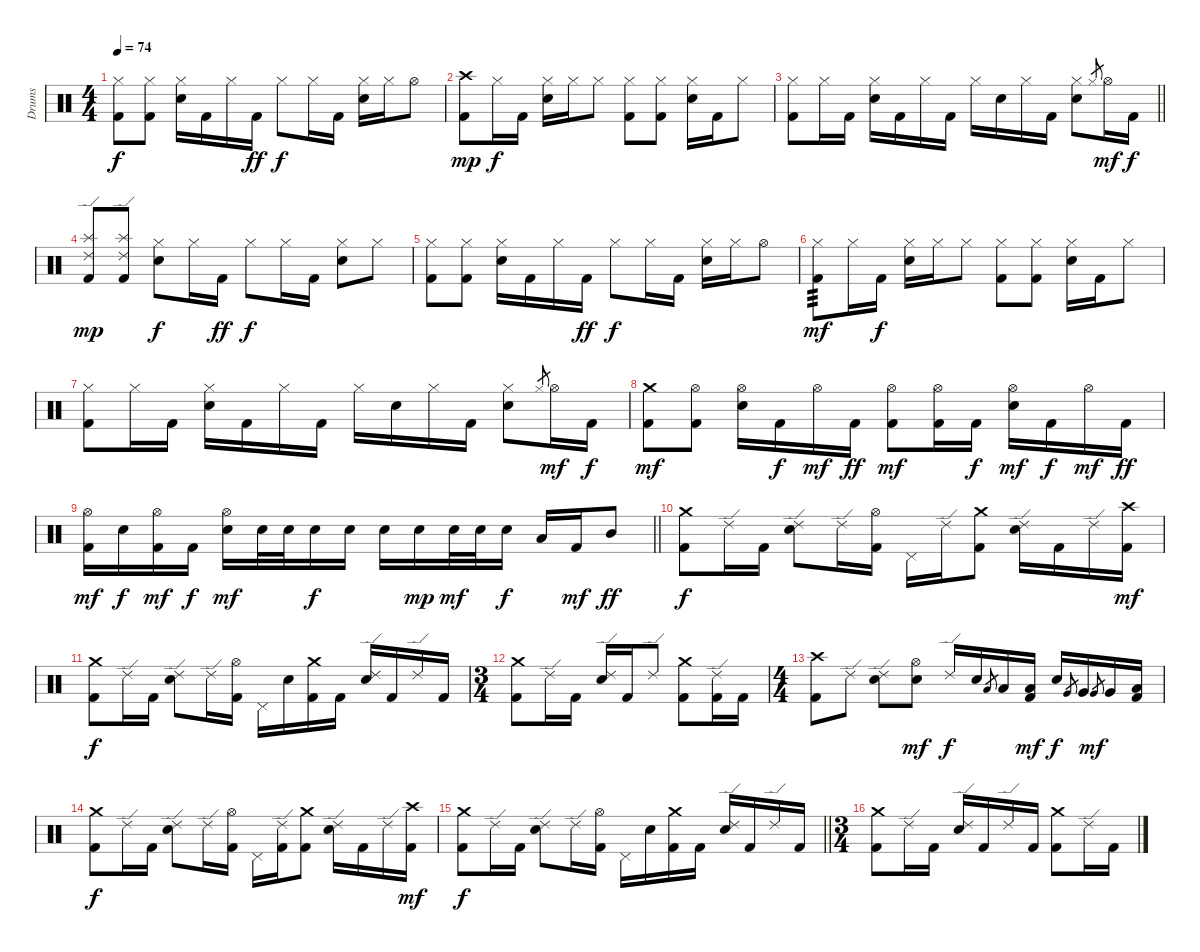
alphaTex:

\track ("Drums" "Drums") {instrument percussion}
\staff {score}
\articulation defaults
\ts (4 4)
\tempo 74
\clef neutral
\ks c
("Hi-Hat (closed)" "Kick (hit) 2").8{dy f} ("Hi-Hat (closed)" "Kick (hit) 2").8 ("Hi-Hat (closed)" "Snare (hit) 2").16 "Kick (hit) 2".16 "Hi-Hat (closed)".16 "Kick (hit) 2".16{dy ff} "Hi-Hat (closed)".8{dy f} "Hi-Hat (closed)".16 "Kick (hit) 2".16 ("Hi-Hat (closed)" "Snare (hit) 2").16 "Hi-Hat (closed)".16 "Hi-Hat (open)".8 |
("Crash high (hit)" "Kick (hit) 2").8{dy mp} "Hi-Hat (closed)".16{dy f} "Kick (hit) 2".16 ("Hi-Hat (closed)" "Snare (hit) 2").16 "Hi-Hat (closed)".16 "Hi-Hat (closed)".8 ("Hi-Hat (closed)" "Kick (hit) 2").8 ("Hi-Hat (closed)" "Kick (hit) 2").8 ("Hi-Hat (closed)" "Snare (hit) 2").16 "Kick (hit) 2".16 "Hi-Hat (closed)".8 |
\barLineRight lightlight
("Hi-Hat (closed)" "Kick (hit) 2").8 "Hi-Hat (closed)".16 "Kick (hit) 2".16 ("Hi-Hat (closed)" "Snare (hit) 2").16 "Kick (hit) 2".16 "Hi-Hat (closed)".16 "Kick (hit) 2".16 "Hi-Hat (closed)".16 "Snare (hit) 2".16 "Hi-Hat (closed)".16 "Kick (hit) 2".16 ("Hi-Hat (closed)" "Snare (hit) 2").8 "Hi-Hat (closed)".8{gr} "Hi-Hat (open)".16{dy mf} "Kick (hit) 2".16{dy f} |
("Splash (hit)" "Ride (edge) 2" "Kick (hit) 2").8{dy mp} ("Splash (hit)" "Ride (edge) 2" "Kick (hit) 2").8 ("Hi-Hat (closed)" "Snare (hit) 2").8{dy f} "Hi-Hat (closed)".16 "Kick (hit) 2".16{dy ff} "Hi-Hat (closed)".8{dy f} "Hi-Hat (closed)".16 "Kick (hit) 2".16 ("Hi-Hat (closed)" "Snare (hit) 2").8 "Hi-Hat (closed)".8 |
("Hi-Hat (closed)" "Kick (hit) 2").8 ("Hi-Hat (closed)" "Kick (hit) 2").8 ("Hi-Hat (closed)" "Snare (hit) 2").16 "Kick (hit) 2".16 "Hi-Hat (closed)".16 "Kick (hit) 2".16{dy ff} "Hi-Hat (closed)".8{dy f} "Hi-Hat (closed)".16 "Kick (hit) 2".16 ("Hi-Hat (closed)" "Snare (hit) 2").16 "Hi-Hat (closed)".16 "Hi-Hat (open)".8 |
("Hi-Hat (closed)" "Kick (hit) 2").8{tp 3 dy mf} "Hi-Hat (closed)".16 "Kick (hit) 2".16{dy f} ("Hi-Hat (closed)" "Snare (hit) 2").16 "Hi-Hat (closed)".16 "Hi-Hat (closed)".8 ("Hi-Hat (closed)" "Kick (hit) 2").8 ("Hi-Hat (closed)" "Kick (hit) 2").8 ("Hi-Hat (closed)" "Snare (hit) 2").16 "Kick (hit) 2".16 "Hi-Hat (closed)".8 |
("Hi-Hat (closed)" "Kick (hit) 2").8 "Hi-Hat (closed)".16 "Kick (hit) 2".16 ("Hi-Hat (closed)" "Snare (hit) 2").16 "Kick (hit) 2".16 "Hi-Hat (closed)".16 "Kick (hit) 2".16 "Hi-Hat (closed)".16 "Snare (hit) 2".16 "Hi-Hat (closed)".16 "Kick (hit) 2".16 ("Hi-Hat (closed)" "Snare (hit) 2").8 "Hi-Hat (closed)".8{gr} "Hi-Hat (open)".16{dy mf} "Kick (hit) 2".16{dy f} |
("Crash medium (hit)" "Kick (hit) 2").8{dy mf} ("Hi-Hat (open)" "Kick (hit) 2").8 ("Hi-Hat (open)" "Snare (hit) 2").16 "Kick (hit) 2".16{dy f} "Hi-Hat (open)".16{dy mf} "Kick (hit) 2".16{dy ff} ("Hi-Hat (open)" "Kick (hit) 2").8{dy mf} ("Hi-Hat (open)" "Kick (hit) 2").16 "Kick (hit) 2".16{dy f} ("Hi-Hat (open)" "Snare (hit) 2").16{dy mf} "Kick (hit) 2".16{dy f} "Hi-Hat (open)".16{dy mf} "Kick (hit) 2".16{dy ff} |
\barLineRight lightlight
("Hi-Hat (open)" "Kick (hit) 2").16{dy mf} "Snare (hit) 2".16{dy f} ("Hi-Hat (open)" "Kick (hit) 2").16{dy mf} "Kick (hit) 2".16{dy f} ("Hi-Hat (open)" "Snare (hit) 2").16{dy mf} "Snare (hit) 2".32 "Snare (hit) 2".32 "Snare (hit) 2".16{dy f} "Snare (hit) 2".16 "Snare (hit) 2".16 "Snare (hit) 2".16{dy mp} "Snare (hit) 2".32{dy mf} "Snare (hit) 2".32 "Snare (hit) 2".16{dy f} "Low Tom (hit)".16 "Kick (hit) 2".16{dy mf} "Mid Tom (hit)".8{dy ff} |
("Crash medium (hit)" "Kick (hit) 2").8{dy f} "Ride (edge) 2".16 "Kick (hit) 2".16 ("Ride (edge) 2" "Snare (hit) 2").8 "Ride (edge) 2".16 ("Hi-Hat (open)" "Kick (hit) 2").16 "Pedal Hi-Hat (hit)".16 "Ride (edge) 2".16 ("Crash medium (hit)" "Kick (hit) 2").8 ("Ride (edge) 2" "Snare (hit) 2").16 "Kick (hit) 2".16 "Ride (edge) 2".16 ("Crash high (hit)" "Kick (hit) 2").16{dy mf} |
("Crash medium (hit)" "Kick (hit) 2").8{dy f} "Ride (edge) 2".16 "Kick (hit) 2".16 ("Ride (edge) 2" "Snare (hit) 2").8 "Ride (edge) 2".16 ("Hi-Hat (open)" "Kick (hit) 2").16 "Pedal Hi-Hat (hit)".16 "Snare (hit) 2".16 ("Crash medium (hit)" "Kick (hit) 2").16 "Kick (hit) 2".16 ("Ride (edge) 2" "Snare (hit) 2").16 "Kick (hit) 2".16 "Ride (edge) 2".16 "Kick (hit) 2".16 |
\ts (3 4)
("Crash medium (hit)" "Kick (hit) 2").8 "Ride (edge) 2".16 "Kick (hit) 2".16 ("Ride (edge) 2" "Snare (hit) 2").16 "Kick (hit) 2".16 "Ride (edge) 2".8 ("Crash medium (hit)" "Kick (hit) 2").8 ("Ride (edge) 2" "Kick (hit) 2").16 "Kick (hit) 2".16 |
\ts (4 4)
("Crash high (hit)" "Kick (hit) 2").8 "Ride (edge) 2".8 ("Ride (edge) 2" "Snare (hit) 2").8 ("Hi-Hat (open)" "Snare (hit) 2").8{dy mf} "Ride (edge) 2".16{dy f} "Snare (hit) 2".16 "Low Tom (hit)".8{gr} "Low Tom (hit)".16 ("Low Tom (hit)" "Kick (hit) 2").16{dy mf} "Snare (hit) 2".16{dy f} "Very Low Tom (hit)".8{gr} "Very Low Tom (hit)".16 "Very Low Tom (hit)".8{gr dy mf} "Very Low Tom (hit)".16 ("Low Floor Tom (hit)" "Kick (hit) 2").16 |
("Crash medium (hit)" "Kick (hit) 2").8{dy f} "Ride (edge) 2".16 "Kick (hit) 2".16 ("Ride (edge) 2" "Snare (hit) 2").8 "Ride (edge) 2".16 ("Hi-Hat (open)" "Kick (hit) 2").16 "Pedal Hi-Hat (hit)".16 ("Ride (edge) 2" "Kick (hit) 2").16 ("Crash medium (hit)" "Kick (hit) 2").8 ("Ride (edge) 2" "Snare (hit) 2").16 "Kick (hit) 2".16 "Ride (edge) 2".16 ("Crash high (hit)" "Kick (hit) 2").16{dy mf} |
\barLineRight lightlight
("Crash medium (hit)" "Kick (hit) 2").8{dy f} "Ride (edge) 2".16 "Kick (hit) 2".16 ("Ride (edge) 2" "Snare (hit) 2").8 "Ride (edge) 2".16 ("Hi-Hat (open)" "Kick (hit) 2").16 "Pedal Hi-Hat (hit)".16 "Snare (hit) 2".16 ("Crash medium (hit)" "Kick (hit) 2").16 "Kick (hit) 2".16 ("Ride (edge) 2" "Snare (hit) 2").16 "Kick (hit) 2".16 "Ride (edge) 2".16 "Kick (hit) 2".16 |
\ts (3 4)
("Crash medium (hit)" "Kick (hit) 2").8 "Ride (edge) 2".16 "Kick (hit) 2".16 ("Ride (edge) 2" "Snare (hit) 2").16 "Kick (hit) 2".16 "Ride (edge) 2".16 "Kick (hit) 2".16 ("Crash medium (hit)" "Kick (hit) 2").8 "Ride (edge) 2".16 "Kick (hit) 2".16
